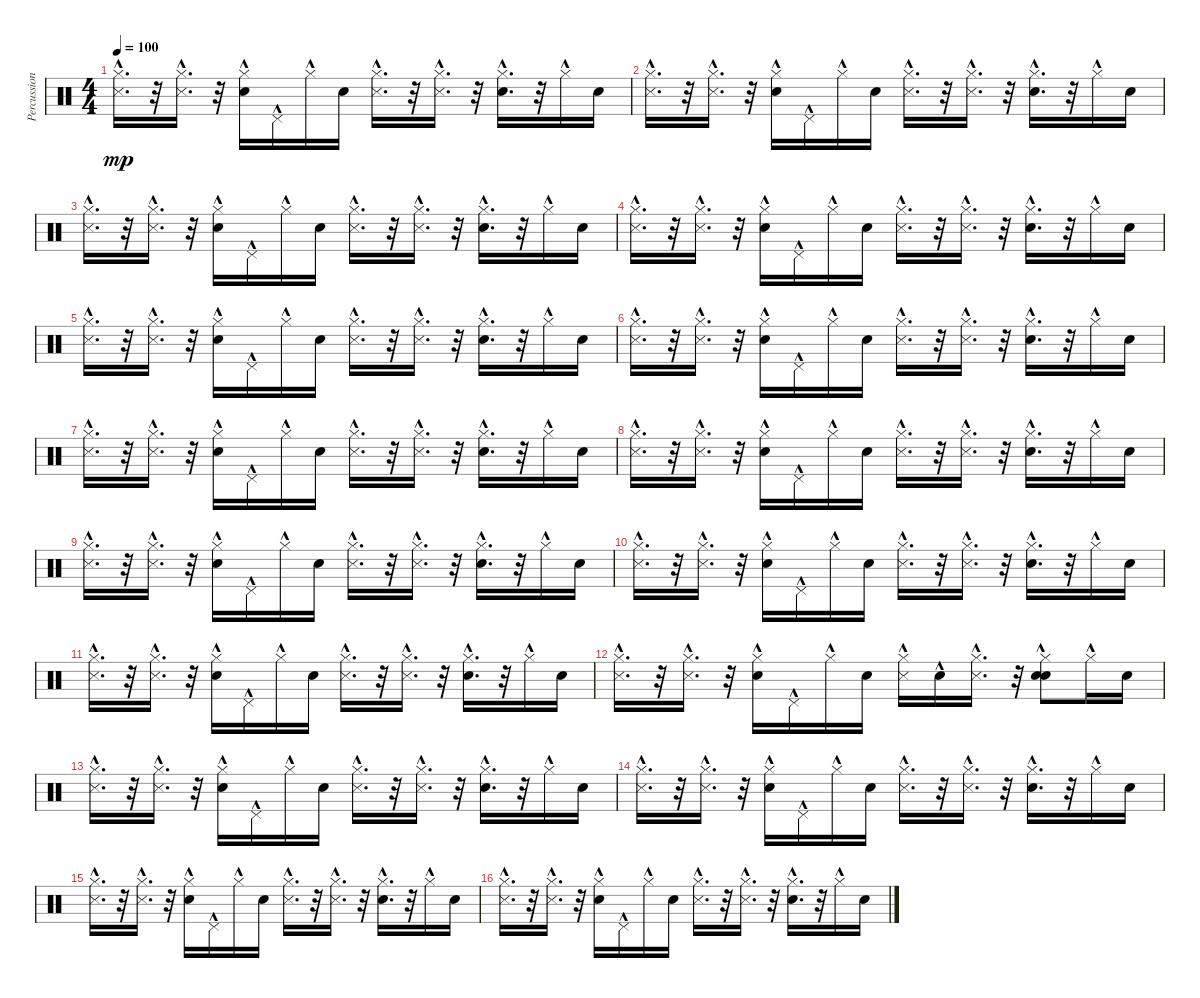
\track ("Percussion" "Percussion") {instrument percussion}
\staff {score}
\articulation defaults
\ts (4 4)
\tempo 100
\clef neutral
\ks c
("Hi-Hat (closed)"{hac} "Metronome (hit)"{hac}).16{d dy mp} r.32 ("Hi-Hat (closed)"{hac} "Metronome (hit)").16{d} r.32 ("Hi-Hat (closed)"{hac} "Metronome (bell)").16 "Pedal Hi-Hat (hit)"{hac}.16 "Hi-Hat (closed)"{hac}.16 "Metronome (bell)".16 ("Metronome (hit)"{hac} "Hi-Hat (closed)"{hac}).16{d} r.32 ("Metronome (hit)" "Hi-Hat (closed)"{hac}).16{d} r.32 ("Metronome (bell)" "Hi-Hat (closed)"{hac}).16{d} r.32 "Hi-Hat (closed)"{hac}.16 "Metronome (bell)".16 |
("Hi-Hat (closed)"{hac} "Metronome (hit)"{hac}).16{d} r.32 ("Hi-Hat (closed)"{hac} "Metronome (hit)").16{d} r.32 ("Hi-Hat (closed)"{hac} "Metronome (bell)").16 "Pedal Hi-Hat (hit)"{hac}.16 "Hi-Hat (closed)"{hac}.16 "Metronome (bell)".16 ("Metronome (hit)"{hac} "Hi-Hat (closed)"{hac}).16{d} r.32 ("Metronome (hit)" "Hi-Hat (closed)"{hac}).16{d} r.32 ("Metronome (bell)" "Hi-Hat (closed)"{hac}).16{d} r.32 "Hi-Hat (closed)"{hac}.16 "Metronome (bell)".16 |
("Hi-Hat (closed)"{hac} "Metronome (hit)"{hac}).16{d} r.32 ("Hi-Hat (closed)"{hac} "Metronome (hit)").16{d} r.32 ("Hi-Hat (closed)"{hac} "Metronome (bell)").16 "Pedal Hi-Hat (hit)"{hac}.16 "Hi-Hat (closed)"{hac}.16 "Metronome (bell)".16 ("Metronome (hit)"{hac} "Hi-Hat (closed)"{hac}).16{d} r.32 ("Metronome (hit)" "Hi-Hat (closed)"{hac}).16{d} r.32 ("Metronome (bell)" "Hi-Hat (closed)"{hac}).16{d} r.32 "Hi-Hat (closed)"{hac}.16 "Metronome (bell)".16 |
("Hi-Hat (closed)"{hac} "Metronome (hit)"{hac}).16{d} r.32 ("Hi-Hat (closed)"{hac} "Metronome (hit)").16{d} r.32 ("Hi-Hat (closed)"{hac} "Metronome (bell)").16 "Pedal Hi-Hat (hit)"{hac}.16 "Hi-Hat (closed)"{hac}.16 "Metronome (bell)".16 ("Metronome (hit)"{hac} "Hi-Hat (closed)"{hac}).16{d} r.32 ("Metronome (hit)" "Hi-Hat (closed)"{hac}).16{d} r.32 ("Metronome (bell)" "Hi-Hat (closed)"{hac}).16{d} r.32 "Hi-Hat (closed)"{hac}.16 "Metronome (bell)".16 |
("Hi-Hat (closed)"{hac} "Metronome (hit)"{hac}).16{d} r.32 ("Hi-Hat (closed)"{hac} "Metronome (hit)").16{d} r.32 ("Hi-Hat (closed)"{hac} "Metronome (bell)").16 "Pedal Hi-Hat (hit)"{hac}.16 "Hi-Hat (closed)"{hac}.16 "Metronome (bell)".16 ("Metronome (hit)"{hac} "Hi-Hat (closed)"{hac}).16{d} r.32 ("Metronome (hit)" "Hi-Hat (closed)"{hac}).16{d} r.32 ("Metronome (bell)" "Hi-Hat (closed)"{hac}).16{d} r.32 "Hi-Hat (closed)"{hac}.16 "Metronome (bell)".16 |
("Hi-Hat (closed)"{hac} "Metronome (hit)"{hac}).16{d} r.32 ("Hi-Hat (closed)"{hac} "Metronome (hit)").16{d} r.32 ("Hi-Hat (closed)"{hac} "Metronome (bell)").16 "Pedal Hi-Hat (hit)"{hac}.16 "Hi-Hat (closed)"{hac}.16 "Metronome (bell)".16 ("Metronome (hit)"{hac} "Hi-Hat (closed)"{hac}).16{d} r.32 ("Metronome (hit)" "Hi-Hat (closed)"{hac}).16{d} r.32 ("Metronome (bell)" "Hi-Hat (closed)"{hac}).16{d} r.32 "Hi-Hat (closed)"{hac}.16 "Metronome (bell)".16 |
("Hi-Hat (closed)"{hac} "Metronome (hit)"{hac}).16{d} r.32 ("Hi-Hat (closed)"{hac} "Metronome (hit)").16{d} r.32 ("Hi-Hat (closed)"{hac} "Metronome (bell)").16 "Pedal Hi-Hat (hit)"{hac}.16 "Hi-Hat (closed)"{hac}.16 "Metronome (bell)".16 ("Metronome (hit)"{hac} "Hi-Hat (closed)"{hac}).16{d} r.32 ("Metronome (hit)" "Hi-Hat (closed)"{hac}).16{d} r.32 ("Metronome (bell)" "Hi-Hat (closed)"{hac}).16{d} r.32 "Hi-Hat (closed)"{hac}.16 "Metronome (bell)".16 |
("Hi-Hat (closed)"{hac} "Metronome (hit)"{hac}).16{d} r.32 ("Hi-Hat (closed)"{hac} "Metronome (hit)").16{d} r.32 ("Hi-Hat (closed)"{hac} "Metronome (bell)").16 "Pedal Hi-Hat (hit)"{hac}.16 "Hi-Hat (closed)"{hac}.16 "Metronome (bell)".16 ("Metronome (hit)"{hac} "Hi-Hat (closed)"{hac}).16{d} r.32 ("Metronome (hit)" "Hi-Hat (closed)"{hac}).16{d} r.32 ("Metronome (bell)" "Hi-Hat (closed)"{hac}).16{d} r.32 "Hi-Hat (closed)"{hac}.16 "Metronome (bell)".16 |
("Hi-Hat (closed)"{hac} "Metronome (hit)"{hac}).16{d} r.32 ("Hi-Hat (closed)"{hac} "Metronome (hit)").16{d} r.32 ("Hi-Hat (closed)"{hac} "Metronome (bell)").16 "Pedal Hi-Hat (hit)"{hac}.16 "Hi-Hat (closed)"{hac}.16 "Metronome (bell)".16 ("Metronome (hit)"{hac} "Hi-Hat (closed)"{hac}).16{d} r.32 ("Metronome (hit)" "Hi-Hat (closed)"{hac}).16{d} r.32 ("Metronome (bell)" "Hi-Hat (closed)"{hac}).16{d} r.32 "Hi-Hat (closed)"{hac}.16 "Metronome (bell)".16 |
("Hi-Hat (closed)"{hac} "Metronome (hit)"{hac}).16{d} r.32 ("Hi-Hat (closed)"{hac} "Metronome (hit)").16{d} r.32 ("Hi-Hat (closed)"{hac} "Metronome (bell)").16 "Pedal Hi-Hat (hit)"{hac}.16 "Hi-Hat (closed)"{hac}.16 "Metronome (bell)".16 ("Metronome (hit)"{hac} "Hi-Hat (closed)"{hac}).16{d} r.32 ("Metronome (hit)" "Hi-Hat (closed)"{hac}).16{d} r.32 ("Metronome (bell)" "Hi-Hat (closed)"{hac}).16{d} r.32 "Hi-Hat (closed)"{hac}.16 "Metronome (bell)".16 |
("Hi-Hat (closed)"{hac} "Metronome (hit)"{hac}).16{d} r.32 ("Hi-Hat (closed)"{hac} "Metronome (hit)").16{d} r.32 ("Hi-Hat (closed)"{hac} "Metronome (bell)").16 "Pedal Hi-Hat (hit)"{hac}.16 "Hi-Hat (closed)"{hac}.16 "Metronome (bell)".16 ("Metronome (hit)"{hac} "Hi-Hat (closed)"{hac}).16{d} r.32 ("Metronome (hit)" "Hi-Hat (closed)"{hac}).16{d} r.32 ("Metronome (bell)" "Hi-Hat (closed)"{hac}).16{d} r.32 "Hi-Hat (closed)"{hac}.16 "Metronome (bell)".16 |
("Hi-Hat (closed)"{hac} "Metronome (hit)"{hac}).16{d} r.32 ("Hi-Hat (closed)"{hac} "Metronome (hit)").16{d} r.32 ("Hi-Hat (closed)"{hac} "Metronome (bell)").16 "Pedal Hi-Hat (hit)"{hac}.16 "Hi-Hat (closed)"{hac}.16 "Metronome (bell)".16 ("Metronome (hit)"{hac} "Hi-Hat (closed)"{hac}).16 "Metronome (bell)"{hac}.16 ("Metronome (hit)" "Hi-Hat (closed)"{hac}).16{d} r.32 ("Metronome (bell)" "Hi-Hat (closed)"{hac} "Metronome (bell)").8 "Hi-Hat (closed)"{hac}.16 "Metronome (bell)".16 |
("Hi-Hat (closed)"{hac} "Metronome (hit)"{hac}).16{d} r.32 ("Hi-Hat (closed)"{hac} "Metronome (hit)").16{d} r.32 ("Hi-Hat (closed)"{hac} "Metronome (bell)").16 "Pedal Hi-Hat (hit)"{hac}.16 "Hi-Hat (closed)"{hac}.16 "Metronome (bell)".16 ("Metronome (hit)"{hac} "Hi-Hat (closed)"{hac}).16{d} r.32 ("Metronome (hit)" "Hi-Hat (closed)"{hac}).16{d} r.32 ("Metronome (bell)" "Hi-Hat (closed)"{hac}).16{d} r.32 "Hi-Hat (closed)"{hac}.16 "Metronome (bell)".16 |
("Hi-Hat (closed)"{hac} "Metronome (hit)"{hac}).16{d} r.32 ("Hi-Hat (closed)"{hac} "Metronome (hit)").16{d} r.32 ("Hi-Hat (closed)"{hac} "Metronome (bell)").16 "Pedal Hi-Hat (hit)"{hac}.16 "Hi-Hat (closed)"{hac}.16 "Metronome (bell)".16 ("Metronome (hit)"{hac} "Hi-Hat (closed)"{hac}).16{d} r.32 ("Metronome (hit)" "Hi-Hat (closed)"{hac}).16{d} r.32 ("Metronome (bell)" "Hi-Hat (closed)"{hac}).16{d} r.32 "Hi-Hat (closed)"{hac}.16 "Metronome (bell)".16 |
("Hi-Hat (closed)"{hac} "Metronome (hit)"{hac}).16{d} r.32 ("Hi-Hat (closed)"{hac} "Metronome (hit)").16{d} r.32 ("Hi-Hat (closed)"{hac} "Metronome (bell)").16 "Pedal Hi-Hat (hit)"{hac}.16 "Hi-Hat (closed)"{hac}.16 "Metronome (bell)".16 ("Metronome (hit)"{hac} "Hi-Hat (closed)"{hac}).16{d} r.32 ("Metronome (hit)" "Hi-Hat (closed)"{hac}).16{d} r.32 ("Metronome (bell)" "Hi-Hat (closed)"{hac}).16{d} r.32 "Hi-Hat (closed)"{hac}.16 "Metronome (bell)".16 |
("Hi-Hat (closed)"{hac} "Metronome (hit)"{hac}).16{d} r.32 ("Hi-Hat (closed)"{hac} "Metronome (hit)").16{d} r.32 ("Hi-Hat (closed)"{hac} "Metronome (bell)").16 "Pedal Hi-Hat (hit)"{hac}.16 "Hi-Hat (closed)"{hac}.16 "Metronome (bell)".16 ("Metronome (hit)"{hac} "Hi-Hat (closed)"{hac}).16{d} r.32 ("Metronome (hit)" "Hi-Hat (closed)"{hac}).16{d} r.32 ("Metronome (bell)" "Hi-Hat (closed)"{hac}).16{d} r.32 "Hi-Hat (closed)"{hac}.16 "Metronome (bell)".16
